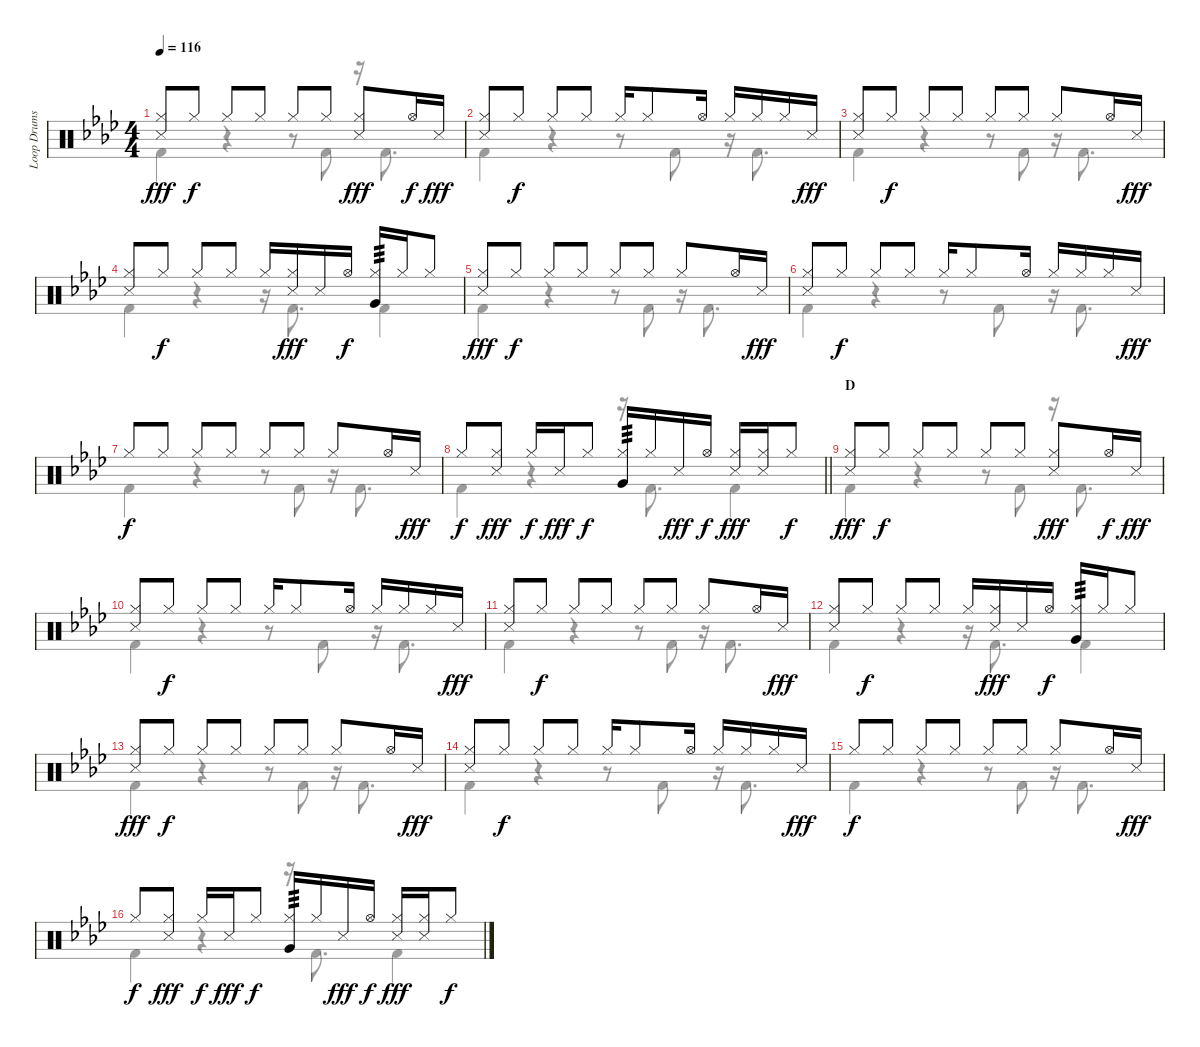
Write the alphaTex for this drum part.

\track ("Loop Drums I" "Loop Drums") {instrument percussion}
\staff {score}
\articulation defaults
\voice
\ts (4 4)
\tempo 116
\clef neutral
\ks ab
("Hi-Hat (closed)" "Snare (side stick) 3").8{dy fff} "Hi-Hat (closed)".8{dy f} "Hi-Hat (closed)".8 "Hi-Hat (closed)".8 "Hi-Hat (closed)".8 "Hi-Hat (closed)".8 ("Hi-Hat (closed)" "Snare (side stick) 3").8{dy fff} "Hi-Hat (open)".16{dy f} "Snare (side stick) 3".16{dy fff} |
("Hi-Hat (closed)" "Snare (side stick) 3").8 "Hi-Hat (closed)".8{dy f} "Hi-Hat (closed)".8 "Hi-Hat (closed)".8 "Hi-Hat (closed)".16 "Hi-Hat (closed)".8 "Hi-Hat (open)".16 "Hi-Hat (closed)".16 "Hi-Hat (closed)".16 "Hi-Hat (closed)".16 "Snare (side stick) 3".16{dy fff} |
("Hi-Hat (closed)" "Snare (side stick) 3").8 "Hi-Hat (closed)".8{dy f} "Hi-Hat (closed)".8 "Hi-Hat (closed)".8 "Hi-Hat (closed)".8 "Hi-Hat (closed)".8 "Hi-Hat (closed)".8 "Hi-Hat (open)".16 "Snare (side stick) 3".16{dy fff} |
("Hi-Hat (closed)" "Snare (side stick) 3").8 "Hi-Hat (closed)".8{dy f} "Hi-Hat (closed)".8 "Hi-Hat (closed)".8 "Hi-Hat (closed)".16 ("Hi-Hat (closed)" "Snare (side stick) 3").16{dy fff} "Snare (side stick) 3".16 "Hi-Hat (open)".16{dy f} ("Hi-Hat (closed)" "Very Low Tom (hit)").16{tp 3} "Hi-Hat (closed)".16 "Hi-Hat (closed)".8 |
("Hi-Hat (closed)" "Snare (side stick) 3").8{dy fff} "Hi-Hat (closed)".8{dy f} "Hi-Hat (closed)".8 "Hi-Hat (closed)".8 "Hi-Hat (closed)".8 "Hi-Hat (closed)".8 "Hi-Hat (closed)".8 "Hi-Hat (open)".16 "Snare (side stick) 3".16{dy fff} |
("Hi-Hat (closed)" "Snare (side stick) 3").8 "Hi-Hat (closed)".8{dy f} "Hi-Hat (closed)".8 "Hi-Hat (closed)".8 "Hi-Hat (closed)".16 "Hi-Hat (closed)".8 "Hi-Hat (open)".16 "Hi-Hat (closed)".16 "Hi-Hat (closed)".16 "Hi-Hat (closed)".16 "Snare (side stick) 3".16{dy fff} |
"Hi-Hat (closed)".8{dy f} "Hi-Hat (closed)".8 "Hi-Hat (closed)".8 "Hi-Hat (closed)".8 "Hi-Hat (closed)".8 "Hi-Hat (closed)".8 "Hi-Hat (closed)".8 "Hi-Hat (open)".16 "Snare (side stick) 3".16{dy fff} |
\barLineRight lightlight "Hi-Hat (closed)".8{dy f}
("Hi-Hat (closed)" "Snare (side stick) 3").8{dy fff} "Hi-Hat (closed)".16{dy f} "Snare (side stick) 3".16{dy fff} "Hi-Hat (closed)".8{dy f} ("Hi-Hat (closed)" "Very Low Tom (hit)").16{tp 3} "Hi-Hat (closed)".16 "Snare (side stick) 3".16{dy fff} "Hi-Hat (open)".16{dy f} ("Hi-Hat (closed)" "Snare (side stick) 3").16{dy fff} ("Hi-Hat (closed)" "Snare (side stick) 3").16 "Hi-Hat (closed)".8{dy f} |
\section ("" "D")
("Hi-Hat (closed)" "Snare (side stick) 3").8{dy fff} "Hi-Hat (closed)".8{dy f} "Hi-Hat (closed)".8 "Hi-Hat (closed)".8 "Hi-Hat (closed)".8 "Hi-Hat (closed)".8 ("Hi-Hat (closed)" "Snare (side stick) 3").8{dy fff} "Hi-Hat (open)".16{dy f} "Snare (side stick) 3".16{dy fff} |
("Hi-Hat (closed)" "Snare (side stick) 3").8 "Hi-Hat (closed)".8{dy f} "Hi-Hat (closed)".8 "Hi-Hat (closed)".8 "Hi-Hat (closed)".16 "Hi-Hat (closed)".8 "Hi-Hat (open)".16 "Hi-Hat (closed)".16 "Hi-Hat (closed)".16 "Hi-Hat (closed)".16 "Snare (side stick) 3".16{dy fff} |
("Hi-Hat (closed)" "Snare (side stick) 3").8 "Hi-Hat (closed)".8{dy f} "Hi-Hat (closed)".8 "Hi-Hat (closed)".8 "Hi-Hat (closed)".8 "Hi-Hat (closed)".8 "Hi-Hat (closed)".8 "Hi-Hat (open)".16 "Snare (side stick) 3".16{dy fff} |
("Hi-Hat (closed)" "Snare (side stick) 3").8 "Hi-Hat (closed)".8{dy f} "Hi-Hat (closed)".8 "Hi-Hat (closed)".8 "Hi-Hat (closed)".16 ("Hi-Hat (closed)" "Snare (side stick) 3").16{dy fff} "Snare (side stick) 3".16 "Hi-Hat (open)".16{dy f} ("Hi-Hat (closed)" "Very Low Tom (hit)").16{tp 3} "Hi-Hat (closed)".16 "Hi-Hat (closed)".8 |
("Hi-Hat (closed)" "Snare (side stick) 3").8{dy fff} "Hi-Hat (closed)".8{dy f} "Hi-Hat (closed)".8 "Hi-Hat (closed)".8 "Hi-Hat (closed)".8 "Hi-Hat (closed)".8 "Hi-Hat (closed)".8 "Hi-Hat (open)".16 "Snare (side stick) 3".16{dy fff} |
("Hi-Hat (closed)" "Snare (side stick) 3").8 "Hi-Hat (closed)".8{dy f} "Hi-Hat (closed)".8 "Hi-Hat (closed)".8 "Hi-Hat (closed)".16 "Hi-Hat (closed)".8 "Hi-Hat (open)".16 "Hi-Hat (closed)".16 "Hi-Hat (closed)".16 "Hi-Hat (closed)".16 "Snare (side stick) 3".16{dy fff} |
"Hi-Hat (closed)".8{dy f} "Hi-Hat (closed)".8 "Hi-Hat (closed)".8 "Hi-Hat (closed)".8 "Hi-Hat (closed)".8 "Hi-Hat (closed)".8 "Hi-Hat (closed)".8 "Hi-Hat (open)".16 "Snare (side stick) 3".16{dy fff} |
"Hi-Hat (closed)".8{dy f} ("Hi-Hat (closed)" "Snare (side stick) 3").8{dy fff} "Hi-Hat (closed)".16{dy f} "Snare (side stick) 3".16{dy fff} "Hi-Hat (closed)".8{dy f} ("Hi-Hat (closed)" "Very Low Tom (hit)").16{tp 3} "Hi-Hat (closed)".16 "Snare (side stick) 3".16{dy fff} "Hi-Hat (open)".16{dy f} ("Hi-Hat (closed)" "Snare (side stick) 3").16{dy fff} ("Hi-Hat (closed)" "Snare (side stick) 3").16 "Hi-Hat (closed)".8{dy f}
\voice
\clef neutral
\ottava regular
\simile none
\ks ab "Kick (hit) 2".4{dy fff}
r.4 r.8 "Kick (hit) 2".8 r.16 "Kick (hit) 2".8{d} |
"Kick (hit) 2".4 r.4 r.8 "Kick (hit) 2".8 r.16 "Kick (hit) 2".8{d} |
"Kick (hit) 2".4 r.4 r.8 "Kick (hit) 2".8 r.16 "Kick (hit) 2".8{d} |
"Kick (hit) 2".4 r.4 r.16 "Kick (hit) 2".8{d} "Kick (hit) 2".4 |
"Kick (hit) 2".4 r.4 r.8 "Kick (hit) 2".8 r.16 "Kick (hit) 2".8{d} |
"Kick (hit) 2".4 r.4 r.8 "Kick (hit) 2".8 r.16 "Kick (hit) 2".8{d} |
"Kick (hit) 2".4 r.4 r.8 "Kick (hit) 2".8 r.16 "Kick (hit) 2".8{d} |
\barLineRight lightlight "Kick (hit) 2".4
r.4 r.16 "Kick (hit) 2".8{d} "Kick (hit) 2".4 |
"Kick (hit) 2".4 r.4 r.8 "Kick (hit) 2".8 r.16 "Kick (hit) 2".8{d} |
"Kick (hit) 2".4 r.4 r.8 "Kick (hit) 2".8 r.16 "Kick (hit) 2".8{d} |
"Kick (hit) 2".4 r.4 r.8 "Kick (hit) 2".8 r.16 "Kick (hit) 2".8{d} |
"Kick (hit) 2".4 r.4 r.16 "Kick (hit) 2".8{d} "Kick (hit) 2".4 |
"Kick (hit) 2".4 r.4 r.8 "Kick (hit) 2".8 r.16 "Kick (hit) 2".8{d} |
"Kick (hit) 2".4 r.4 r.8 "Kick (hit) 2".8 r.16 "Kick (hit) 2".8{d} |
"Kick (hit) 2".4 r.4 r.8 "Kick (hit) 2".8 r.16 "Kick (hit) 2".8{d} |
"Kick (hit) 2".4 r.4 r.16 "Kick (hit) 2".8{d} "Kick (hit) 2".4
